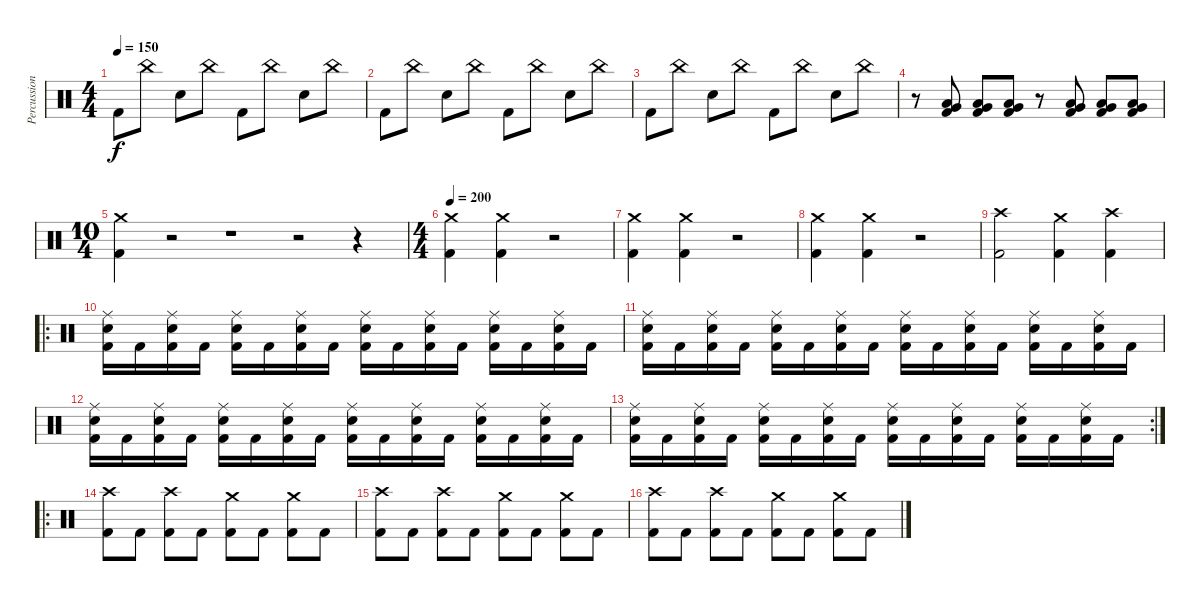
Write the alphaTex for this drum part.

\track ("Percussions" "Percussion") {instrument percussion}
\staff {score}
\articulation defaults
\ts (4 4)
\tempo 150
\clef neutral
\ks c "Kick (hit) 2".8{dy f} "China (hit)".8 "Snare (hit) 2".8 "China (hit)".8 "Kick (hit) 2".8 "China (hit)".8 "Snare (hit) 2".8 "China (hit)".8
|
"Kick (hit) 2".8 "China (hit)".8 "Snare (hit) 2".8 "China (hit)".8 "Kick (hit) 2".8 "China (hit)".8 "Snare (hit) 2".8 "China (hit)".8 |
"Kick (hit) 2".8 "China (hit)".8 "Snare (hit) 2".8 "China (hit)".8 "Kick (hit) 2".8 "China (hit)".8 "Snare (hit) 2".8 "China (hit)".8 |
r.8 ("Very Low Tom (hit)" "Low Tom (hit)" "Kick (hit) 2").8 ("Very Low Tom (hit)" "Low Tom (hit)" "Kick (hit) 2").8 ("Very Low Tom (hit)" "Low Tom (hit)" "Kick (hit) 2").8 r.8 ("Very Low Tom (hit)" "Low Tom (hit)" "Kick (hit) 2").8 ("Very Low Tom (hit)" "Low Tom (hit)" "Kick (hit) 2").8 ("Very Low Tom (hit)" "Low Tom (hit)" "Kick (hit) 2").8 |
\ts (10 4)
("Crash medium (hit)" "Kick (hit) 2").4 r.2 r.1 r.2 r.4 |
\ts (4 4)
\tempo 200
("Crash medium (hit)" "Kick (hit) 2").4 ("Crash medium (hit)" "Kick (hit) 2").4 r.2 |
("Crash medium (hit)" "Kick (hit) 2").4 ("Crash medium (hit)" "Kick (hit) 2").4 r.2 |
("Crash medium (hit)" "Kick (hit) 2").4 ("Crash medium (hit)" "Kick (hit) 2").4 r.2 |
("Crash high (hit)" "Kick (hit) 2").2 ("Crash medium (hit)" "Kick (hit) 2").4 ("Crash high (hit)" "Kick (hit) 2").4 |
\ro
("Ride (middle)" "Snare (hit) 2" "Kick (hit) 2").16 "Kick (hit) 2".16 ("Ride (middle)" "Snare (hit) 2" "Kick (hit) 2").16 "Kick (hit) 2".16 ("Ride (middle)" "Snare (hit) 2" "Kick (hit) 2").16 "Kick (hit) 2".16 ("Ride (middle)" "Snare (hit) 2" "Kick (hit) 2").16 "Kick (hit) 2".16 ("Ride (middle)" "Snare (hit) 2" "Kick (hit) 2").16 "Kick (hit) 2".16 ("Ride (middle)" "Snare (hit) 2" "Kick (hit) 2").16 "Kick (hit) 2".16 ("Ride (middle)" "Snare (hit) 2" "Kick (hit) 2").16 "Kick (hit) 2".16 ("Ride (middle)" "Snare (hit) 2" "Kick (hit) 2").16 "Kick (hit) 2".16 |
("Ride (middle)" "Snare (hit) 2" "Kick (hit) 2").16 "Kick (hit) 2".16 ("Ride (middle)" "Snare (hit) 2" "Kick (hit) 2").16 "Kick (hit) 2".16 ("Ride (middle)" "Snare (hit) 2" "Kick (hit) 2").16 "Kick (hit) 2".16 ("Ride (middle)" "Snare (hit) 2" "Kick (hit) 2").16 "Kick (hit) 2".16 ("Ride (middle)" "Snare (hit) 2" "Kick (hit) 2").16 "Kick (hit) 2".16 ("Ride (middle)" "Snare (hit) 2" "Kick (hit) 2").16 "Kick (hit) 2".16 ("Ride (middle)" "Snare (hit) 2" "Kick (hit) 2").16 "Kick (hit) 2".16 ("Ride (middle)" "Snare (hit) 2" "Kick (hit) 2").16 "Kick (hit) 2".16 |
("Ride (middle)" "Snare (hit) 2" "Kick (hit) 2").16 "Kick (hit) 2".16 ("Ride (middle)" "Snare (hit) 2" "Kick (hit) 2").16 "Kick (hit) 2".16 ("Ride (middle)" "Snare (hit) 2" "Kick (hit) 2").16 "Kick (hit) 2".16 ("Ride (middle)" "Snare (hit) 2" "Kick (hit) 2").16 "Kick (hit) 2".16 ("Ride (middle)" "Snare (hit) 2" "Kick (hit) 2").16 "Kick (hit) 2".16 ("Ride (middle)" "Snare (hit) 2" "Kick (hit) 2").16 "Kick (hit) 2".16 ("Ride (middle)" "Snare (hit) 2" "Kick (hit) 2").16 "Kick (hit) 2".16 ("Ride (middle)" "Snare (hit) 2" "Kick (hit) 2").16 "Kick (hit) 2".16 |
\rc 2
("Ride (middle)" "Snare (hit) 2" "Kick (hit) 2").16 "Kick (hit) 2".16 ("Ride (middle)" "Snare (hit) 2" "Kick (hit) 2").16 "Kick (hit) 2".16 ("Ride (middle)" "Snare (hit) 2" "Kick (hit) 2").16 "Kick (hit) 2".16 ("Ride (middle)" "Snare (hit) 2" "Kick (hit) 2").16 "Kick (hit) 2".16 ("Ride (middle)" "Snare (hit) 2" "Kick (hit) 2").16 "Kick (hit) 2".16 ("Ride (middle)" "Snare (hit) 2" "Kick (hit) 2").16 "Kick (hit) 2".16 ("Ride (middle)" "Snare (hit) 2" "Kick (hit) 2").16 "Kick (hit) 2".16 ("Ride (middle)" "Snare (hit) 2" "Kick (hit) 2").16 "Kick (hit) 2".16 |
\ro
("Crash high (hit)" "Kick (hit) 2").8 "Kick (hit) 2".8 ("Crash high (hit)" "Kick (hit) 2").8 "Kick (hit) 2".8 ("Crash medium (hit)" "Kick (hit) 2").8 "Kick (hit) 2".8 ("Crash medium (hit)" "Kick (hit) 2").8 "Kick (hit) 2".8 |
("Crash high (hit)" "Kick (hit) 2").8 "Kick (hit) 2".8 ("Crash high (hit)" "Kick (hit) 2").8 "Kick (hit) 2".8 ("Crash medium (hit)" "Kick (hit) 2").8 "Kick (hit) 2".8 ("Crash medium (hit)" "Kick (hit) 2").8 "Kick (hit) 2".8 |
("Crash high (hit)" "Kick (hit) 2").8 "Kick (hit) 2".8 ("Crash high (hit)" "Kick (hit) 2").8 "Kick (hit) 2".8 ("Crash medium (hit)" "Kick (hit) 2").8 "Kick (hit) 2".8 ("Crash medium (hit)" "Kick (hit) 2").8 "Kick (hit) 2".8
